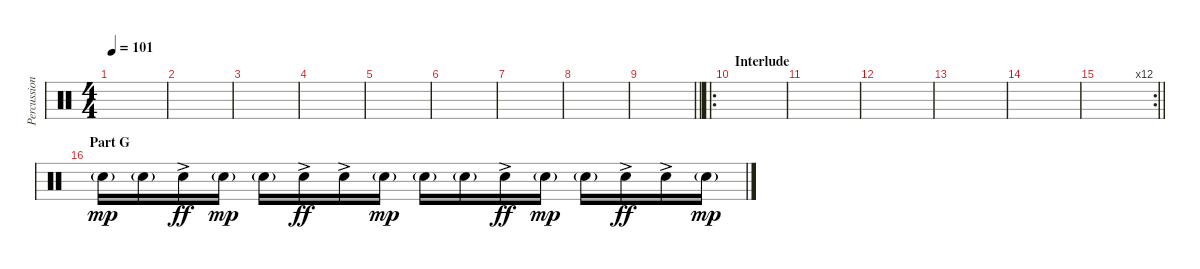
\track ("Percussion" "Percussion") {instrument percussion}
\staff {score}
\articulation defaults
\ts (4 4)
\tempo 101
\clef neutral
\ks c
|
|
|
|
|
|
|
|
\barLineRight lightlight
|
\ro
\section ("" "Interlude")
|
|
|
|
|
\rc 12
\barLineRight lightlight
|
\section ("" "Part G")
"Electric Snare (hit)"{g}.16{dy mp} "Electric Snare (hit)"{g}.16 "Electric Snare (hit)"{ac}.16{dy ff} "Electric Snare (hit)"{g}.16{dy mp} "Electric Snare (hit)"{g}.16 "Electric Snare (hit)"{ac}.16{dy ff} "Electric Snare (hit)"{ac}.16 "Electric Snare (hit)"{g}.16{dy mp} "Electric Snare (hit)"{g}.16 "Electric Snare (hit)"{g}.16 "Electric Snare (hit)"{ac}.16{dy ff} "Electric Snare (hit)"{g}.16{dy mp} "Electric Snare (hit)"{g}.16 "Electric Snare (hit)"{ac}.16{dy ff} "Electric Snare (hit)"{ac}.16 "Electric Snare (hit)"{g}.16{dy mp}
